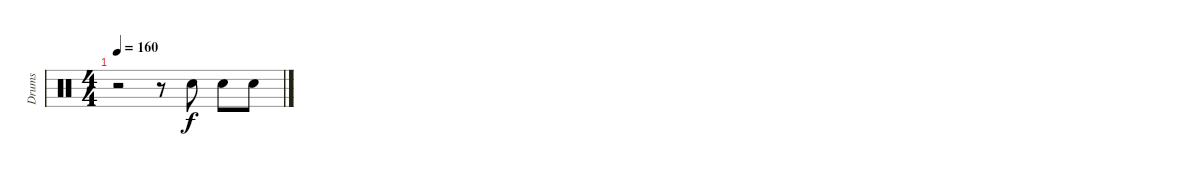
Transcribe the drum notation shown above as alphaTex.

\track ("Drums" "Drums") {instrument percussion}
\staff {score}
\articulation defaults
\ts (4 4)
\tempo 160
\clef neutral
\ks c
r.2{dy f} r.8 "Electric Snare (hit)".8 "Electric Snare (hit)".8 "Electric Snare (hit)".8
